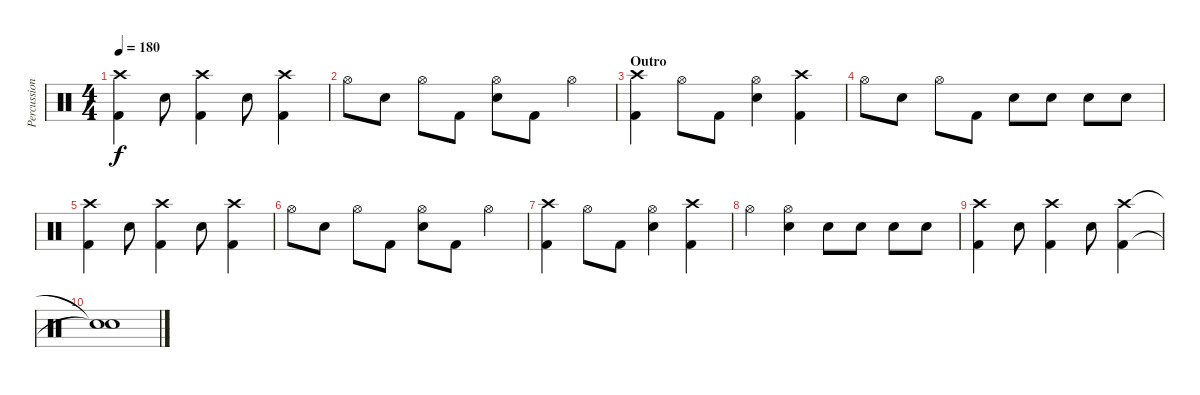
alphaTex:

\track ("Percussion" "Percussion") {instrument percussion}
\staff {score}
\articulation defaults
\ts (4 4)
\tempo 180
\clef neutral
\ks c
("Crash high (hit)" "Kick (hit) 2").4{dy f} "Electric Snare (hit)".8 ("Crash high (hit)" "Kick (hit) 2").4 "Electric Snare (hit)".8 ("Crash high (hit)" "Kick (hit) 2").4 |
"Hi-Hat (open)".8 "Electric Snare (hit)".8 "Hi-Hat (open)".8 "Kick (hit) 2".8 ("Hi-Hat (open)" "Electric Snare (hit)").8 "Kick (hit) 2".8 "Hi-Hat (open)".4 |
\section ("" "Outro")
("Crash high (hit)" "Kick (hit) 2").4 "Hi-Hat (open)".8 "Kick (hit) 2".8 ("Hi-Hat (open)" "Electric Snare (hit)").4 ("Crash high (hit)" "Kick (hit) 2").4 |
"Hi-Hat (open)".8 "Electric Snare (hit)".8 "Hi-Hat (open)".8 "Kick (hit) 2".8 "Electric Snare (hit)".8 "Electric Snare (hit)".8 "Electric Snare (hit)".8 "Electric Snare (hit)".8 |
("Crash high (hit)" "Kick (hit) 2").4 "Electric Snare (hit)".8 ("Crash high (hit)" "Kick (hit) 2").4 "Electric Snare (hit)".8 ("Crash high (hit)" "Kick (hit) 2").4 |
"Hi-Hat (open)".8 "Electric Snare (hit)".8 "Hi-Hat (open)".8 "Kick (hit) 2".8 ("Hi-Hat (open)" "Electric Snare (hit)").8 "Kick (hit) 2".8 "Hi-Hat (open)".4 |
("Crash high (hit)" "Kick (hit) 2").4 "Hi-Hat (open)".8 "Kick (hit) 2".8 ("Hi-Hat (open)" "Electric Snare (hit)").4 ("Crash high (hit)" "Kick (hit) 2").4 |
"Hi-Hat (open)".4 ("Hi-Hat (open)" "Electric Snare (hit)").4 "Electric Snare (hit)".8 "Electric Snare (hit)".8 "Electric Snare (hit)".8 "Electric Snare (hit)".8 |
("Crash high (hit)" "Kick (hit) 2").4 "Electric Snare (hit)".8 ("Crash high (hit)" "Kick (hit) 2").4 "Electric Snare (hit)".8 ("Crash high (hit)" "Kick (hit) 2").4 |
("Snare (hit)"{t} "Snare (hit)"{t}).1
